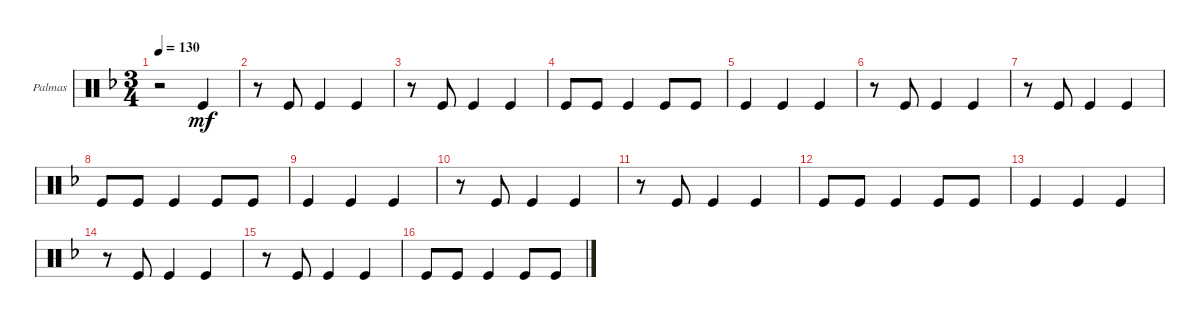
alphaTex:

\defaultSystemsLayout 4
\bracketExtendMode groupsimilarinstruments
\firstSystemTrackNameOrientation horizontal
\otherSystemsTrackNameOrientation horizontal
\track ("Palmas" "Palmas") {instrument percussion}
\staff {score}
\articulation defaults
\ts (3 4)
\tempo 130
\clef neutral
\ks f
r.2{dy mf} "Kick (hit)".4 |
r.8 "Kick (hit)".8 "Kick (hit)".4 "Kick (hit)".4 |
r.8 "Kick (hit)".8 "Kick (hit)".4 "Kick (hit)".4 |
"Kick (hit)".8 "Kick (hit)".8 "Kick (hit)".4 "Kick (hit)".8 "Kick (hit)".8 |
"Kick (hit)".4 "Kick (hit)".4 "Kick (hit)".4 |
r.8 "Kick (hit)".8 "Kick (hit)".4 "Kick (hit)".4 |
r.8 "Kick (hit)".8 "Kick (hit)".4 "Kick (hit)".4 |
"Kick (hit)".8 "Kick (hit)".8 "Kick (hit)".4 "Kick (hit)".8 "Kick (hit)".8 |
"Kick (hit)".4 "Kick (hit)".4 "Kick (hit)".4 |
r.8 "Kick (hit)".8 "Kick (hit)".4 "Kick (hit)".4 |
r.8 "Kick (hit)".8 "Kick (hit)".4 "Kick (hit)".4 |
"Kick (hit)".8 "Kick (hit)".8 "Kick (hit)".4 "Kick (hit)".8 "Kick (hit)".8 |
"Kick (hit)".4 "Kick (hit)".4 "Kick (hit)".4 |
r.8 "Kick (hit)".8 "Kick (hit)".4 "Kick (hit)".4 |
r.8 "Kick (hit)".8 "Kick (hit)".4 "Kick (hit)".4 |
"Kick (hit)".8 "Kick (hit)".8 "Kick (hit)".4 "Kick (hit)".8 "Kick (hit)".8
